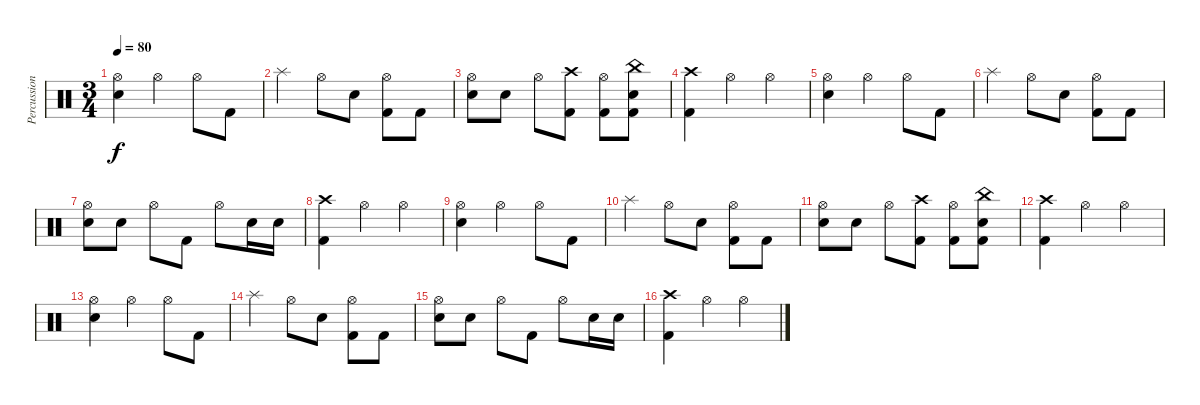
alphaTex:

\track ("Percussion" "Percussion") {instrument percussion}
\staff {score}
\articulation defaults
\ts (3 4)
\tempo 80
\clef neutral
\ks c
("Hi-Hat (open)" "Electric Snare (hit)").4{dy f} "Hi-Hat (open)".4 "Hi-Hat (open)".8 "Kick (hit) 2".8 |
"Splash (hit)".4 "Hi-Hat (open)".8 "Electric Snare (hit)".8 ("Hi-Hat (open)" "Kick (hit) 2").8 "Kick (hit) 2".8 |
("Hi-Hat (open)" "Electric Snare (hit)").8 "Electric Snare (hit)".8 "Hi-Hat (open)".8 ("Crash high (hit)" "Kick (hit) 2").8 ("Hi-Hat (open)" "Kick (hit) 2").8 ("China (hit)" "Electric Snare (hit)" "Kick (hit) 2").8 |
("Crash high (hit)" "Kick (hit) 2").4 "Hi-Hat (open)".4 "Hi-Hat (open)".4 |
("Hi-Hat (open)" "Electric Snare (hit)").4 "Hi-Hat (open)".4 "Hi-Hat (open)".8 "Kick (hit) 2".8 |
"Splash (hit)".4 "Hi-Hat (open)".8 "Electric Snare (hit)".8 ("Hi-Hat (open)" "Kick (hit) 2").8 "Kick (hit) 2".8 |
("Hi-Hat (open)" "Electric Snare (hit)").8 "Electric Snare (hit)".8 "Hi-Hat (open)".8 "Kick (hit) 2".8 "Hi-Hat (open)".8 "Electric Snare (hit)".16 "Electric Snare (hit)".16 |
("Crash high (hit)" "Kick (hit) 2").4 "Hi-Hat (open)".4 "Hi-Hat (open)".4 |
("Hi-Hat (open)" "Electric Snare (hit)").4 "Hi-Hat (open)".4 "Hi-Hat (open)".8 "Kick (hit) 2".8 |
"Splash (hit)".4 "Hi-Hat (open)".8 "Electric Snare (hit)".8 ("Hi-Hat (open)" "Kick (hit) 2").8 "Kick (hit) 2".8 |
("Hi-Hat (open)" "Electric Snare (hit)").8 "Electric Snare (hit)".8 "Hi-Hat (open)".8 ("Crash high (hit)" "Kick (hit) 2").8 ("Hi-Hat (open)" "Kick (hit) 2").8 ("China (hit)" "Electric Snare (hit)" "Kick (hit) 2").8 |
("Crash high (hit)" "Kick (hit) 2").4 "Hi-Hat (open)".4 "Hi-Hat (open)".4 |
("Hi-Hat (open)" "Electric Snare (hit)").4 "Hi-Hat (open)".4 "Hi-Hat (open)".8 "Kick (hit) 2".8 |
"Splash (hit)".4 "Hi-Hat (open)".8 "Electric Snare (hit)".8 ("Hi-Hat (open)" "Kick (hit) 2").8 "Kick (hit) 2".8 |
("Hi-Hat (open)" "Electric Snare (hit)").8 "Electric Snare (hit)".8 "Hi-Hat (open)".8 "Kick (hit) 2".8 "Hi-Hat (open)".8 "Electric Snare (hit)".16 "Electric Snare (hit)".16 |
("Crash high (hit)" "Kick (hit) 2").4 "Hi-Hat (open)".4 "Hi-Hat (open)".4
